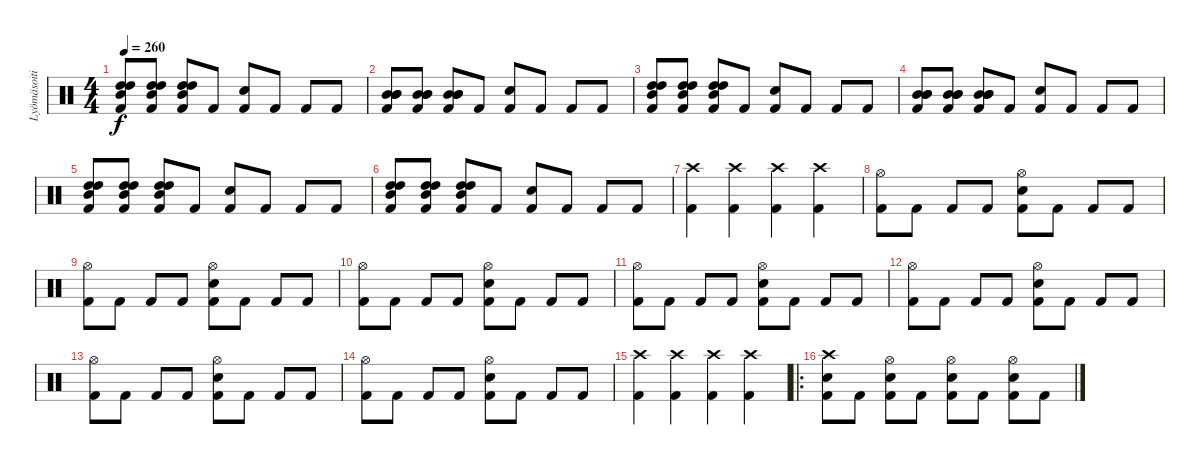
\track ("Lyömäsoitin" "Lyömäsoiti") {instrument percussion}
\staff {score}
\articulation defaults
\ts (4 4)
\tempo 260
\clef neutral
\ks c
("High Tom (hit)" "High Tom (hit)" "Mid Tom (hit)" "Kick (hit) 2").8{dy f} ("High Tom (hit)" "High Tom (hit)" "Mid Tom (hit)" "Kick (hit) 2").8 ("High Tom (hit)" "High Tom (hit)" "Mid Tom (hit)" "Kick (hit) 2").8 "Kick (hit) 2".8 ("Electric Snare (hit)" "Kick (hit) 2").8 "Kick (hit) 2".8 "Kick (hit) 2".8 "Kick (hit) 2".8 |
("Mid Tom (hit)" "Mid Tom (hit)" "Mid Tom (hit)" "Kick (hit) 2").8 ("Mid Tom (hit)" "Mid Tom (hit)" "Mid Tom (hit)" "Kick (hit) 2").8 ("Mid Tom (hit)" "Mid Tom (hit)" "Mid Tom (hit)" "Kick (hit) 2").8 "Kick (hit) 2".8 ("Electric Snare (hit)" "Kick (hit) 2").8 "Kick (hit) 2".8 "Kick (hit) 2".8 "Kick (hit) 2".8 |
("High Tom (hit)" "High Tom (hit)" "Mid Tom (hit)" "Kick (hit) 2").8 ("High Tom (hit)" "High Tom (hit)" "Mid Tom (hit)" "Kick (hit) 2").8 ("High Tom (hit)" "High Tom (hit)" "Mid Tom (hit)" "Kick (hit) 2").8 "Kick (hit) 2".8 ("Electric Snare (hit)" "Kick (hit) 2").8 "Kick (hit) 2".8 "Kick (hit) 2".8 "Kick (hit) 2".8 |
("Mid Tom (hit)" "Mid Tom (hit)" "Mid Tom (hit)" "Kick (hit) 2").8 ("Mid Tom (hit)" "Mid Tom (hit)" "Mid Tom (hit)" "Kick (hit) 2").8 ("Mid Tom (hit)" "Mid Tom (hit)" "Mid Tom (hit)" "Kick (hit) 2").8 "Kick (hit) 2".8 ("Electric Snare (hit)" "Kick (hit) 2").8 "Kick (hit) 2".8 "Kick (hit) 2".8 "Kick (hit) 2".8 |
("High Tom (hit)" "High Tom (hit)" "Mid Tom (hit)" "Kick (hit) 2").8 ("High Tom (hit)" "High Tom (hit)" "Mid Tom (hit)" "Kick (hit) 2").8 ("High Tom (hit)" "High Tom (hit)" "Mid Tom (hit)" "Kick (hit) 2").8 "Kick (hit) 2".8 ("Electric Snare (hit)" "Kick (hit) 2").8 "Kick (hit) 2".8 "Kick (hit) 2".8 "Kick (hit) 2".8 |
("High Tom (hit)" "High Tom (hit)" "Mid Tom (hit)" "Kick (hit) 2").8 ("High Tom (hit)" "High Tom (hit)" "Mid Tom (hit)" "Kick (hit) 2").8 ("High Tom (hit)" "High Tom (hit)" "Mid Tom (hit)" "Kick (hit) 2").8 "Kick (hit) 2".8 ("Electric Snare (hit)" "Kick (hit) 2").8 "Kick (hit) 2".8 "Kick (hit) 2".8 "Kick (hit) 2".8 |
("Crash high (hit)" "Kick (hit) 2").4 ("Crash high (hit)" "Kick (hit) 2").4 ("Crash high (hit)" "Kick (hit) 2").4 ("Crash high (hit)" "Kick (hit) 2").4 |
("Hi-Hat (open)" "Kick (hit) 2").8 "Kick (hit) 2".8 "Kick (hit) 2".8 "Kick (hit) 2".8 ("Hi-Hat (open)" "Electric Snare (hit)" "Kick (hit) 2").8 "Kick (hit) 2".8 "Kick (hit) 2".8 "Kick (hit) 2".8 |
("Hi-Hat (open)" "Kick (hit) 2").8 "Kick (hit) 2".8 "Kick (hit) 2".8 "Kick (hit) 2".8 ("Hi-Hat (open)" "Electric Snare (hit)" "Kick (hit) 2").8 "Kick (hit) 2".8 "Kick (hit) 2".8 "Kick (hit) 2".8 |
("Hi-Hat (open)" "Kick (hit) 2").8 "Kick (hit) 2".8 "Kick (hit) 2".8 "Kick (hit) 2".8 ("Hi-Hat (open)" "Electric Snare (hit)" "Kick (hit) 2").8 "Kick (hit) 2".8 "Kick (hit) 2".8 "Kick (hit) 2".8 |
("Hi-Hat (open)" "Kick (hit) 2").8 "Kick (hit) 2".8 "Kick (hit) 2".8 "Kick (hit) 2".8 ("Hi-Hat (open)" "Electric Snare (hit)" "Kick (hit) 2").8 "Kick (hit) 2".8 "Kick (hit) 2".8 "Kick (hit) 2".8 |
("Hi-Hat (open)" "Kick (hit) 2").8 "Kick (hit) 2".8 "Kick (hit) 2".8 "Kick (hit) 2".8 ("Hi-Hat (open)" "Electric Snare (hit)" "Kick (hit) 2").8 "Kick (hit) 2".8 "Kick (hit) 2".8 "Kick (hit) 2".8 |
("Hi-Hat (open)" "Kick (hit) 2").8 "Kick (hit) 2".8 "Kick (hit) 2".8 "Kick (hit) 2".8 ("Hi-Hat (open)" "Electric Snare (hit)" "Kick (hit) 2").8 "Kick (hit) 2".8 "Kick (hit) 2".8 "Kick (hit) 2".8 |
("Hi-Hat (open)" "Kick (hit) 2").8 "Kick (hit) 2".8 "Kick (hit) 2".8 "Kick (hit) 2".8 ("Hi-Hat (open)" "Electric Snare (hit)" "Kick (hit) 2").8 "Kick (hit) 2".8 "Kick (hit) 2".8 "Kick (hit) 2".8 |
("Crash high (hit)" "Kick (hit) 2").4 ("Crash high (hit)" "Kick (hit) 2").4 ("Crash high (hit)" "Kick (hit) 2").4 ("Crash high (hit)" "Kick (hit) 2").4 |
\ro
("Crash high (hit)" "Electric Snare (hit)" "Kick (hit) 2").8 "Kick (hit) 2".8 ("Hi-Hat (open)" "Electric Snare (hit)" "Kick (hit) 2").8 "Kick (hit) 2".8 ("Electric Snare (hit)" "Hi-Hat (open)" "Kick (hit) 2").8 "Kick (hit) 2".8 ("Hi-Hat (open)" "Electric Snare (hit)" "Kick (hit) 2").8 "Kick (hit) 2".8
